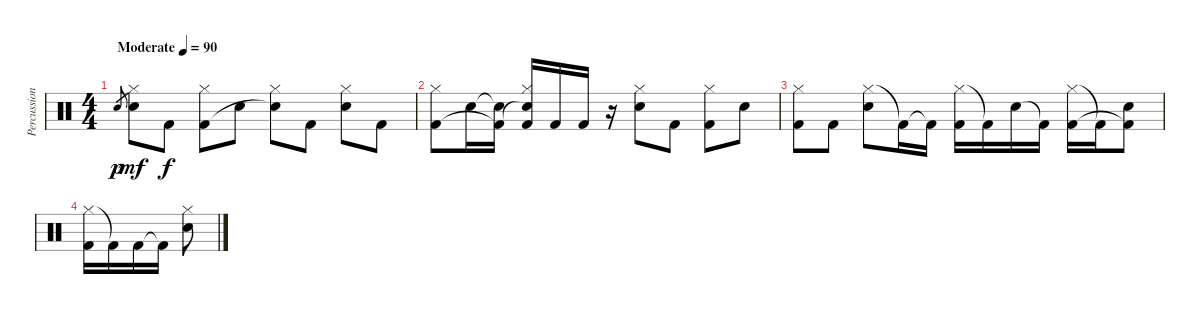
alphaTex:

\track ("Percussion" "Percussion") {instrument percussion}
\staff {score}
\articulation defaults
\ts (4 4)
\tempo (90 "Moderate")
\clef neutral
\ks c "Snare (hit) 2".8{gr dy p}
("Hi-Hat (closed)" "Snare (hit) 2").8{dy mf} "Kick (hit) 2".8{dy f} ("Hi-Hat (closed)" "Kick (hit) 2").8 "Snare (hit) 2".8 ("Hi-Hat (closed)" "Snare (hit) 2"{t}).8 "Kick (hit) 2".8 ("Hi-Hat (closed)" "Snare (hit) 2").8 "Kick (hit) 2".8 |
("Hi-Hat (closed)" "Kick (hit) 2").8 "Snare (hit) 2".16 ("Snare (hit) 2"{t} "Kick (hit) 2"{t}).16 ("Hi-Hat (closed)" "Snare (hit) 2"{t} "Kick (hit) 2").16 "Kick (hit) 2".16 "Kick (hit) 2".16 r.16 ("Hi-Hat (closed)" "Snare (hit) 2").8 "Kick (hit) 2".8 ("Hi-Hat (closed)" "Kick (hit) 2").8 "Snare (hit) 2".8 |
("Hi-Hat (closed)" "Kick (hit) 2").8 "Kick (hit) 2".8 ("Hi-Hat (closed)" "Snare (hit) 2").8 "Kick (hit) 2"{t}.16 "Kick (hit) 2"{t}.16 ("Hi-Hat (closed)" "Kick (hit) 2").16 "Kick (hit) 2"{t}.16 "Snare (hit) 2".16 "Kick (hit) 2"{t}.16 ("Hi-Hat (closed)" "Kick (hit) 2").16 "Kick (hit) 2"{t}.16 ("Snare (hit) 2" "Kick (hit) 2"{t}).8 |
("Hi-Hat (closed)" "Kick (hit) 2").16 "Kick (hit) 2"{t}.16 "Kick (hit) 2".16 "Kick (hit) 2"{t}.16 ("Hi-Hat (closed)" "Snare (hit) 2").8
